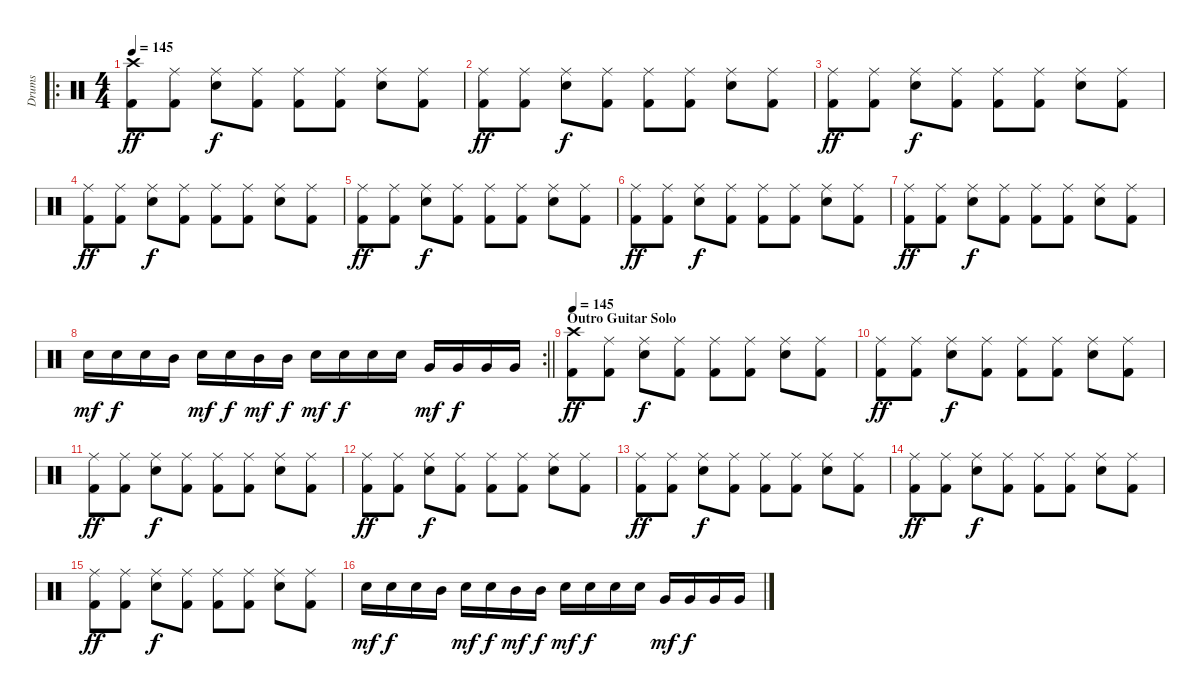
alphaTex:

\track ("Drums" "Drums") {instrument percussion}
\staff {score}
\articulation defaults
\ro
\ts (4 4)
\tempo 145
\clef neutral
\ks c
("Crash high (hit)" "Kick (hit) 2").8{dy ff} ("Ride (middle)" "Kick (hit) 2").8 ("Ride (middle)" "Snare (hit) 2").8{dy f} ("Ride (middle)" "Kick (hit) 2").8 ("Ride (middle)" "Kick (hit) 2").8 ("Ride (middle)" "Kick (hit) 2").8 ("Ride (middle)" "Snare (hit) 2").8 ("Ride (middle)" "Kick (hit) 2").8 |
("Ride (middle)" "Kick (hit) 2").8{dy ff} ("Ride (middle)" "Kick (hit) 2").8 ("Ride (middle)" "Snare (hit) 2").8{dy f} ("Ride (middle)" "Kick (hit) 2").8 ("Ride (middle)" "Kick (hit) 2").8 ("Ride (middle)" "Kick (hit) 2").8 ("Ride (middle)" "Snare (hit) 2").8 ("Ride (middle)" "Kick (hit) 2").8 |
("Ride (middle)" "Kick (hit) 2").8{dy ff} ("Ride (middle)" "Kick (hit) 2").8 ("Ride (middle)" "Snare (hit) 2").8{dy f} ("Ride (middle)" "Kick (hit) 2").8 ("Ride (middle)" "Kick (hit) 2").8 ("Ride (middle)" "Kick (hit) 2").8 ("Ride (middle)" "Snare (hit) 2").8 ("Ride (middle)" "Kick (hit) 2").8 |
("Ride (middle)" "Kick (hit) 2").8{dy ff} ("Ride (middle)" "Kick (hit) 2").8 ("Ride (middle)" "Snare (hit) 2").8{dy f} ("Ride (middle)" "Kick (hit) 2").8 ("Ride (middle)" "Kick (hit) 2").8 ("Ride (middle)" "Kick (hit) 2").8 ("Ride (middle)" "Snare (hit) 2").8 ("Ride (middle)" "Kick (hit) 2").8 |
("Ride (middle)" "Kick (hit) 2").8{dy ff} ("Ride (middle)" "Kick (hit) 2").8 ("Ride (middle)" "Snare (hit) 2").8{dy f} ("Ride (middle)" "Kick (hit) 2").8 ("Ride (middle)" "Kick (hit) 2").8 ("Ride (middle)" "Kick (hit) 2").8 ("Ride (middle)" "Snare (hit) 2").8 ("Ride (middle)" "Kick (hit) 2").8 |
("Ride (middle)" "Kick (hit) 2").8{dy ff} ("Ride (middle)" "Kick (hit) 2").8 ("Ride (middle)" "Snare (hit) 2").8{dy f} ("Ride (middle)" "Kick (hit) 2").8 ("Ride (middle)" "Kick (hit) 2").8 ("Ride (middle)" "Kick (hit) 2").8 ("Ride (middle)" "Snare (hit) 2").8 ("Ride (middle)" "Kick (hit) 2").8 |
("Ride (middle)" "Kick (hit) 2").8{dy ff} ("Ride (middle)" "Kick (hit) 2").8 ("Ride (middle)" "Snare (hit) 2").8{dy f} ("Ride (middle)" "Kick (hit) 2").8 ("Ride (middle)" "Kick (hit) 2").8 ("Ride (middle)" "Kick (hit) 2").8 ("Ride (middle)" "Snare (hit) 2").8 ("Ride (middle)" "Kick (hit) 2").8 |
\rc 2
\barLineRight lightlight "Snare (hit) 2".16{dy mf} "Snare (hit) 2".16{dy f} "Snare (hit) 2".16 "Mid Tom (hit)".16 "Snare (hit) 2".16{dy mf} "Snare (hit) 2".16{dy f} "Mid Tom (hit)".16{dy mf} "Mid Tom (hit)".16{dy f} "Snare (hit) 2".16{dy mf} "Snare (hit) 2".16{dy f} "Snare (hit) 2".16 "Snare (hit) 2".16 "Very Low Tom (hit)".16{dy mf} "Very Low Tom (hit)".16{dy f} "Very Low Tom (hit)".16 "Very Low Tom (hit)".16
|
\section ("" "Outro Guitar Solo")
\tempo 145
("Crash high (hit)" "Kick (hit) 2").8{dy ff} ("Ride (middle)" "Kick (hit) 2").8 ("Ride (middle)" "Snare (hit) 2").8{dy f} ("Ride (middle)" "Kick (hit) 2").8 ("Ride (middle)" "Kick (hit) 2").8 ("Ride (middle)" "Kick (hit) 2").8 ("Ride (middle)" "Snare (hit) 2").8 ("Ride (middle)" "Kick (hit) 2").8 |
("Ride (middle)" "Kick (hit) 2").8{dy ff} ("Ride (middle)" "Kick (hit) 2").8 ("Ride (middle)" "Snare (hit) 2").8{dy f} ("Ride (middle)" "Kick (hit) 2").8 ("Ride (middle)" "Kick (hit) 2").8 ("Ride (middle)" "Kick (hit) 2").8 ("Ride (middle)" "Snare (hit) 2").8 ("Ride (middle)" "Kick (hit) 2").8 |
("Ride (middle)" "Kick (hit) 2").8{dy ff} ("Ride (middle)" "Kick (hit) 2").8 ("Ride (middle)" "Snare (hit) 2").8{dy f} ("Ride (middle)" "Kick (hit) 2").8 ("Ride (middle)" "Kick (hit) 2").8 ("Ride (middle)" "Kick (hit) 2").8 ("Ride (middle)" "Snare (hit) 2").8 ("Ride (middle)" "Kick (hit) 2").8 |
("Ride (middle)" "Kick (hit) 2").8{dy ff} ("Ride (middle)" "Kick (hit) 2").8 ("Ride (middle)" "Snare (hit) 2").8{dy f} ("Ride (middle)" "Kick (hit) 2").8 ("Ride (middle)" "Kick (hit) 2").8 ("Ride (middle)" "Kick (hit) 2").8 ("Ride (middle)" "Snare (hit) 2").8 ("Ride (middle)" "Kick (hit) 2").8 |
("Ride (middle)" "Kick (hit) 2").8{dy ff} ("Ride (middle)" "Kick (hit) 2").8 ("Ride (middle)" "Snare (hit) 2").8{dy f} ("Ride (middle)" "Kick (hit) 2").8 ("Ride (middle)" "Kick (hit) 2").8 ("Ride (middle)" "Kick (hit) 2").8 ("Ride (middle)" "Snare (hit) 2").8 ("Ride (middle)" "Kick (hit) 2").8 |
("Ride (middle)" "Kick (hit) 2").8{dy ff} ("Ride (middle)" "Kick (hit) 2").8 ("Ride (middle)" "Snare (hit) 2").8{dy f} ("Ride (middle)" "Kick (hit) 2").8 ("Ride (middle)" "Kick (hit) 2").8 ("Ride (middle)" "Kick (hit) 2").8 ("Ride (middle)" "Snare (hit) 2").8 ("Ride (middle)" "Kick (hit) 2").8 |
("Ride (middle)" "Kick (hit) 2").8{dy ff} ("Ride (middle)" "Kick (hit) 2").8 ("Ride (middle)" "Snare (hit) 2").8{dy f} ("Ride (middle)" "Kick (hit) 2").8 ("Ride (middle)" "Kick (hit) 2").8 ("Ride (middle)" "Kick (hit) 2").8 ("Ride (middle)" "Snare (hit) 2").8 ("Ride (middle)" "Kick (hit) 2").8 |
"Snare (hit) 2".16{dy mf} "Snare (hit) 2".16{dy f} "Snare (hit) 2".16 "Mid Tom (hit)".16 "Snare (hit) 2".16{dy mf} "Snare (hit) 2".16{dy f} "Mid Tom (hit)".16{dy mf} "Mid Tom (hit)".16{dy f} "Snare (hit) 2".16{dy mf} "Snare (hit) 2".16{dy f} "Snare (hit) 2".16 "Snare (hit) 2".16 "Very Low Tom (hit)".16{dy mf} "Very Low Tom (hit)".16{dy f} "Very Low Tom (hit)".16 "Very Low Tom (hit)".16
